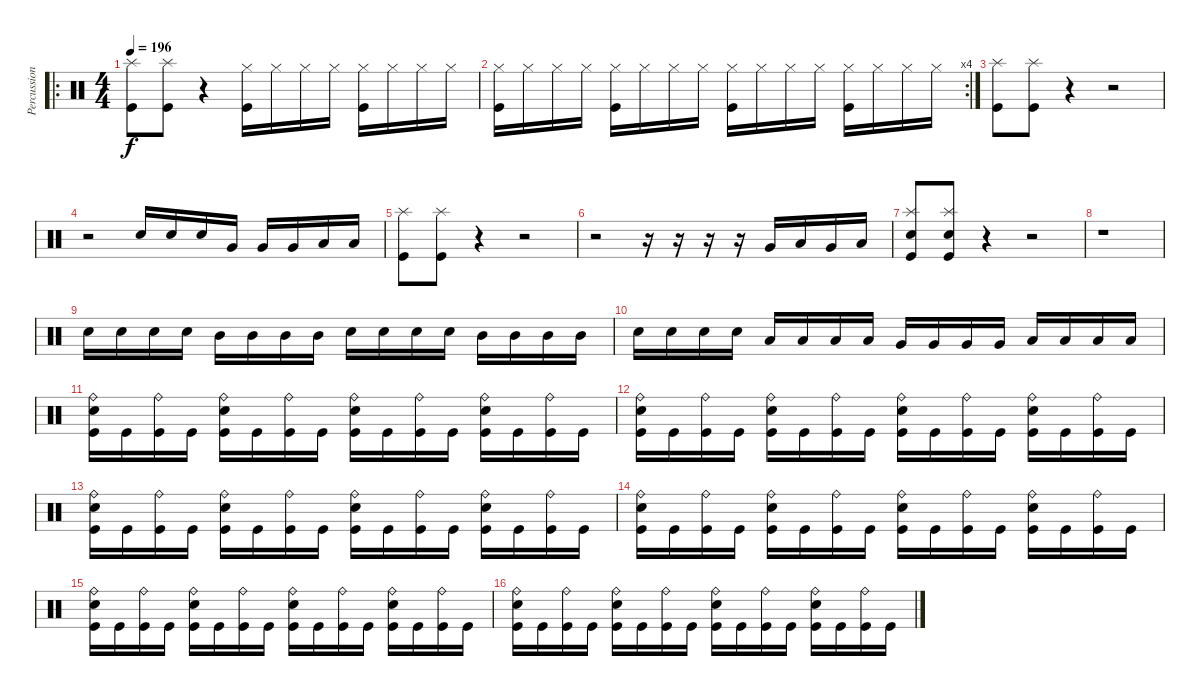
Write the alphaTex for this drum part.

\track ("Percussions" "Percussion") {instrument percussion}
\staff {score}
\articulation defaults
\ro
\ts (4 4)
\tempo 196
\clef neutral
\ks c
("Kick (hit)" "Splash (hit)").8{dy f} ("Kick (hit)" "Splash (hit)").8 r.4 ("Kick (hit)" "Hi-Hat (closed)").16 "Hi-Hat (closed)".16 "Hi-Hat (closed)".16 "Hi-Hat (closed)".16 ("Kick (hit)" "Hi-Hat (closed)").16 "Hi-Hat (closed)".16 "Hi-Hat (closed)".16 "Hi-Hat (closed)".16 |
\rc 4
("Kick (hit)" "Hi-Hat (closed)").16 "Hi-Hat (closed)".16 "Hi-Hat (closed)".16 "Hi-Hat (closed)".16 ("Kick (hit)" "Hi-Hat (closed)").16 "Hi-Hat (closed)".16 "Hi-Hat (closed)".16 "Hi-Hat (closed)".16 ("Kick (hit)" "Hi-Hat (closed)").16 "Hi-Hat (closed)".16 "Hi-Hat (closed)".16 "Hi-Hat (closed)".16 ("Kick (hit)" "Hi-Hat (closed)").16 "Hi-Hat (closed)".16 "Hi-Hat (closed)".16 "Hi-Hat (closed)".16 |
("Kick (hit)" "Splash (hit)").8 ("Kick (hit)" "Splash (hit)").8 r.4 r.2 |
r.2 "Electric Snare (hit)".16 "Electric Snare (hit)".16 "Electric Snare (hit)".16 "Very Low Tom (hit)".16 "Very Low Tom (hit)".16 "Very Low Tom (hit)".16 "Low Floor Tom (hit)".16 "Low Floor Tom (hit)".16 |
("Kick (hit)" "Splash (hit)").8 ("Kick (hit)" "Splash (hit)").8 r.4 r.2 |
r.2 r.16 r.16 r.16 r.16 "Very Low Tom (hit)".16 "Low Floor Tom (hit)".16 "Very Low Tom (hit)".16 "Low Floor Tom (hit)".16 |
("Kick (hit)" "Electric Snare (hit)" "Splash (hit)").8 ("Kick (hit)" "Electric Snare (hit)" "Splash (hit)").8 r.4 r.2 |
r.1 |
"Electric Snare (hit)".16 "Electric Snare (hit)".16 "Electric Snare (hit)".16 "Electric Snare (hit)".16 "Mid Tom (hit)".16 "Mid Tom (hit)".16 "Mid Tom (hit)".16 "Mid Tom (hit)".16 "Electric Snare (hit)".16 "Electric Snare (hit)".16 "Electric Snare (hit)".16 "Electric Snare (hit)".16 "Mid Tom (hit)".16 "Mid Tom (hit)".16 "Mid Tom (hit)".16 "Mid Tom (hit)".16 |
"Electric Snare (hit)".16 "Electric Snare (hit)".16 "Electric Snare (hit)".16 "Electric Snare (hit)".16 "Low Tom (hit)".16 "Low Tom (hit)".16 "Low Tom (hit)".16 "Low Tom (hit)".16 "Very Low Tom (hit)".16 "Very Low Tom (hit)".16 "Very Low Tom (hit)".16 "Very Low Tom (hit)".16 "Low Floor Tom (hit)".16 "Low Floor Tom (hit)".16 "Low Floor Tom (hit)".16 "Low Floor Tom (hit)".16 |
("Kick (hit)" "Electric Snare (hit)" "Ride (bell)").16 "Kick (hit)".16 ("Kick (hit)" "Ride (bell)").16 "Kick (hit)".16 ("Kick (hit)" "Electric Snare (hit)" "Ride (bell)").16 "Kick (hit)".16 ("Kick (hit)" "Ride (bell)").16 "Kick (hit)".16 ("Kick (hit)" "Electric Snare (hit)" "Ride (bell)").16 "Kick (hit)".16 ("Kick (hit)" "Ride (bell)").16 "Kick (hit)".16 ("Kick (hit)" "Electric Snare (hit)" "Ride (bell)").16 "Kick (hit)".16 ("Kick (hit)" "Ride (bell)").16 "Kick (hit)".16 |
("Kick (hit)" "Electric Snare (hit)" "Ride (bell)").16 "Kick (hit)".16 ("Kick (hit)" "Ride (bell)").16 "Kick (hit)".16 ("Kick (hit)" "Electric Snare (hit)" "Ride (bell)").16 "Kick (hit)".16 ("Kick (hit)" "Ride (bell)").16 "Kick (hit)".16 ("Kick (hit)" "Electric Snare (hit)" "Ride (bell)").16 "Kick (hit)".16 ("Kick (hit)" "Ride (bell)").16 "Kick (hit)".16 ("Kick (hit)" "Electric Snare (hit)" "Ride (bell)").16 "Kick (hit)".16 ("Kick (hit)" "Ride (bell)").16 "Kick (hit)".16 |
("Kick (hit)" "Electric Snare (hit)" "Ride (bell)").16 "Kick (hit)".16 ("Kick (hit)" "Ride (bell)").16 "Kick (hit)".16 ("Kick (hit)" "Electric Snare (hit)" "Ride (bell)").16 "Kick (hit)".16 ("Kick (hit)" "Ride (bell)").16 "Kick (hit)".16 ("Kick (hit)" "Electric Snare (hit)" "Ride (bell)").16 "Kick (hit)".16 ("Kick (hit)" "Ride (bell)").16 "Kick (hit)".16 ("Kick (hit)" "Electric Snare (hit)" "Ride (bell)").16 "Kick (hit)".16 ("Kick (hit)" "Ride (bell)").16 "Kick (hit)".16 |
("Kick (hit)" "Electric Snare (hit)" "Ride (bell)").16 "Kick (hit)".16 ("Kick (hit)" "Ride (bell)").16 "Kick (hit)".16 ("Kick (hit)" "Electric Snare (hit)" "Ride (bell)").16 "Kick (hit)".16 ("Kick (hit)" "Ride (bell)").16 "Kick (hit)".16 ("Kick (hit)" "Electric Snare (hit)" "Ride (bell)").16 "Kick (hit)".16 ("Kick (hit)" "Ride (bell)").16 "Kick (hit)".16 ("Kick (hit)" "Electric Snare (hit)" "Ride (bell)").16 "Kick (hit)".16 ("Kick (hit)" "Ride (bell)").16 "Kick (hit)".16 |
("Kick (hit)" "Electric Snare (hit)" "Ride (bell)").16 "Kick (hit)".16 ("Kick (hit)" "Ride (bell)").16 "Kick (hit)".16 ("Kick (hit)" "Electric Snare (hit)" "Ride (bell)").16 "Kick (hit)".16 ("Kick (hit)" "Ride (bell)").16 "Kick (hit)".16 ("Kick (hit)" "Electric Snare (hit)" "Ride (bell)").16 "Kick (hit)".16 ("Kick (hit)" "Ride (bell)").16 "Kick (hit)".16 ("Kick (hit)" "Electric Snare (hit)" "Ride (bell)").16 "Kick (hit)".16 ("Kick (hit)" "Ride (bell)").16 "Kick (hit)".16 |
("Kick (hit)" "Electric Snare (hit)" "Ride (bell)").16 "Kick (hit)".16 ("Kick (hit)" "Ride (bell)").16 "Kick (hit)".16 ("Kick (hit)" "Electric Snare (hit)" "Ride (bell)").16 "Kick (hit)".16 ("Kick (hit)" "Ride (bell)").16 "Kick (hit)".16 ("Kick (hit)" "Electric Snare (hit)" "Ride (bell)").16 "Kick (hit)".16 ("Kick (hit)" "Ride (bell)").16 "Kick (hit)".16 ("Kick (hit)" "Electric Snare (hit)" "Ride (bell)").16 "Kick (hit)".16 ("Kick (hit)" "Ride (bell)").16 "Kick (hit)".16
